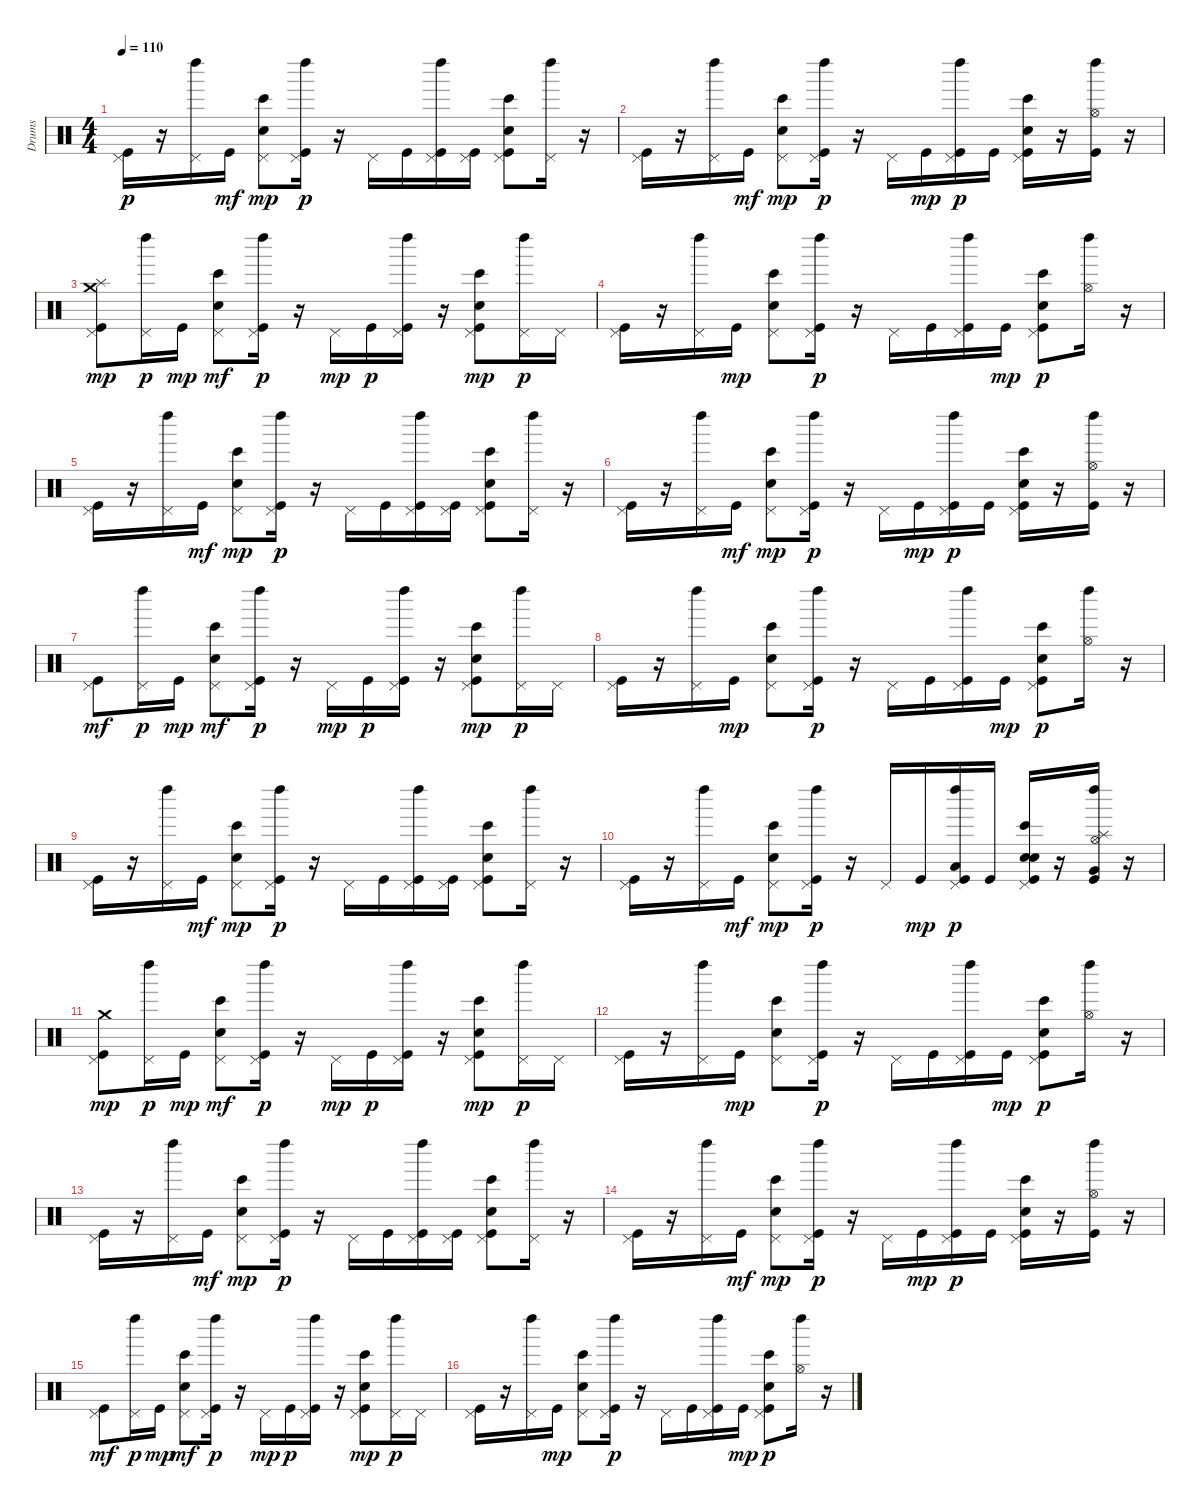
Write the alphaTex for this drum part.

\track ("Drums" "Drums") {instrument percussion}
\staff {score}
\articulation defaults
\ts (4 4)
\tempo 110
\clef neutral
\ks c
("Kick (hit)" "Pedal Hi-Hat (hit)").16{dy p} r.16 ("Pedal Hi-Hat (hit)" "Left Maraca (hit)").16 "Kick (hit)".16{dy mf} ("Bongo High (hit)" "Electric Snare (hit)" "Pedal Hi-Hat (hit)").8{dy mp} ("Kick (hit)" "Pedal Hi-Hat (hit)" "Left Maraca (hit)").16{dy p} r.16 "Pedal Hi-Hat (hit)".16 "Kick (hit)".16 ("Kick (hit)" "Pedal Hi-Hat (hit)" "Left Maraca (hit)").16 ("Kick (hit)" "Pedal Hi-Hat (hit)").16 ("Bongo High (hit)" "Kick (hit)" "Electric Snare (hit)" "Pedal Hi-Hat (hit)").8 ("Pedal Hi-Hat (hit)" "Left Maraca (hit)").16 r.16 |
("Kick (hit)" "Pedal Hi-Hat (hit)").16 r.16 ("Pedal Hi-Hat (hit)" "Left Maraca (hit)").16 "Kick (hit)".16{dy mf} ("Bongo High (hit)" "Electric Snare (hit)" "Pedal Hi-Hat (hit)").8{dy mp} ("Kick (hit)" "Pedal Hi-Hat (hit)" "Left Maraca (hit)").16{dy p} r.16 "Pedal Hi-Hat (hit)".16 "Kick (hit)".16{dy mp} ("Kick (hit)" "Pedal Hi-Hat (hit)" "Left Maraca (hit)").16{dy p} "Kick (hit)".16 ("Bongo High (hit)" "Kick (hit)" "Electric Snare (hit)" "Pedal Hi-Hat (hit)").16 r.16 ("Kick (hit)" "Hi-Hat (open)" "Left Maraca (hit)").16 r.16 |
("Kick (hit)" "Pedal Hi-Hat (hit)" "Crash medium (hit)" "Splash (hit)").8{dy mp} ("Pedal Hi-Hat (hit)" "Left Maraca (hit)").16{dy p} "Kick (hit)".16{dy mp} ("Bongo High (hit)" "Electric Snare (hit)" "Pedal Hi-Hat (hit)").8{dy mf} ("Kick (hit)" "Pedal Hi-Hat (hit)" "Left Maraca (hit)").16{dy p} r.16 "Pedal Hi-Hat (hit)".16{dy mp} "Kick (hit)".16{dy p} ("Kick (hit)" "Pedal Hi-Hat (hit)" "Left Maraca (hit)").16 r.16 ("Bongo High (hit)" "Kick (hit)" "Electric Snare (hit)" "Pedal Hi-Hat (hit)").8{dy mp} ("Pedal Hi-Hat (hit)" "Left Maraca (hit)").16{dy p} "Pedal Hi-Hat (hit)".16 |
("Kick (hit)" "Pedal Hi-Hat (hit)").16 r.16 ("Pedal Hi-Hat (hit)" "Left Maraca (hit)").16 "Kick (hit)".16{dy mp} ("Bongo High (hit)" "Electric Snare (hit)" "Pedal Hi-Hat (hit)").8 ("Kick (hit)" "Pedal Hi-Hat (hit)" "Left Maraca (hit)").16{dy p} r.16 "Pedal Hi-Hat (hit)".16 "Kick (hit)".16 ("Kick (hit)" "Pedal Hi-Hat (hit)" "Left Maraca (hit)").16 "Kick (hit)".16{dy mp} ("Bongo High (hit)" "Kick (hit)" "Electric Snare (hit)" "Pedal Hi-Hat (hit)").8{dy p} ("Hi-Hat (open)" "Left Maraca (hit)").16 r.16 |
("Kick (hit)" "Pedal Hi-Hat (hit)").16 r.16 ("Pedal Hi-Hat (hit)" "Left Maraca (hit)").16 "Kick (hit)".16{dy mf} ("Bongo High (hit)" "Electric Snare (hit)" "Pedal Hi-Hat (hit)").8{dy mp} ("Kick (hit)" "Pedal Hi-Hat (hit)" "Left Maraca (hit)").16{dy p} r.16 "Pedal Hi-Hat (hit)".16 "Kick (hit)".16 ("Kick (hit)" "Pedal Hi-Hat (hit)" "Left Maraca (hit)").16 ("Kick (hit)" "Pedal Hi-Hat (hit)").16 ("Bongo High (hit)" "Kick (hit)" "Electric Snare (hit)" "Pedal Hi-Hat (hit)").8 ("Pedal Hi-Hat (hit)" "Left Maraca (hit)").16 r.16 |
("Kick (hit)" "Pedal Hi-Hat (hit)").16 r.16 ("Pedal Hi-Hat (hit)" "Left Maraca (hit)").16 "Kick (hit)".16{dy mf} ("Bongo High (hit)" "Electric Snare (hit)" "Pedal Hi-Hat (hit)").8{dy mp} ("Kick (hit)" "Pedal Hi-Hat (hit)" "Left Maraca (hit)").16{dy p} r.16 "Pedal Hi-Hat (hit)".16 "Kick (hit)".16{dy mp} ("Kick (hit)" "Pedal Hi-Hat (hit)" "Left Maraca (hit)").16{dy p} "Kick (hit)".16 ("Bongo High (hit)" "Kick (hit)" "Electric Snare (hit)" "Pedal Hi-Hat (hit)").16 r.16 ("Kick (hit)" "Hi-Hat (open)" "Left Maraca (hit)").16 r.16 |
("Kick (hit)" "Pedal Hi-Hat (hit)").8{dy mf} ("Pedal Hi-Hat (hit)" "Left Maraca (hit)").16{dy p} "Kick (hit)".16{dy mp} ("Bongo High (hit)" "Electric Snare (hit)" "Pedal Hi-Hat (hit)").8{dy mf} ("Kick (hit)" "Pedal Hi-Hat (hit)" "Left Maraca (hit)").16{dy p} r.16 "Pedal Hi-Hat (hit)".16{dy mp} "Kick (hit)".16{dy p} ("Kick (hit)" "Pedal Hi-Hat (hit)" "Left Maraca (hit)").16 r.16 ("Bongo High (hit)" "Kick (hit)" "Electric Snare (hit)" "Pedal Hi-Hat (hit)").8{dy mp} ("Pedal Hi-Hat (hit)" "Left Maraca (hit)").16{dy p} "Pedal Hi-Hat (hit)".16 |
("Kick (hit)" "Pedal Hi-Hat (hit)").16 r.16 ("Pedal Hi-Hat (hit)" "Left Maraca (hit)").16 "Kick (hit)".16{dy mp} ("Bongo High (hit)" "Electric Snare (hit)" "Pedal Hi-Hat (hit)").8 ("Kick (hit)" "Pedal Hi-Hat (hit)" "Left Maraca (hit)").16{dy p} r.16 "Pedal Hi-Hat (hit)".16 "Kick (hit)".16 ("Kick (hit)" "Pedal Hi-Hat (hit)" "Left Maraca (hit)").16 "Kick (hit)".16{dy mp} ("Bongo High (hit)" "Kick (hit)" "Electric Snare (hit)" "Pedal Hi-Hat (hit)").8{dy p} ("Hi-Hat (open)" "Left Maraca (hit)").16 r.16 |
("Kick (hit)" "Pedal Hi-Hat (hit)").16 r.16 ("Pedal Hi-Hat (hit)" "Left Maraca (hit)").16 "Kick (hit)".16{dy mf} ("Bongo High (hit)" "Electric Snare (hit)" "Pedal Hi-Hat (hit)").8{dy mp} ("Kick (hit)" "Pedal Hi-Hat (hit)" "Left Maraca (hit)").16{dy p} r.16 "Pedal Hi-Hat (hit)".16 "Kick (hit)".16 ("Kick (hit)" "Pedal Hi-Hat (hit)" "Left Maraca (hit)").16 ("Kick (hit)" "Pedal Hi-Hat (hit)").16 ("Bongo High (hit)" "Kick (hit)" "Electric Snare (hit)" "Pedal Hi-Hat (hit)").8 ("Pedal Hi-Hat (hit)" "Left Maraca (hit)").16 r.16 |
("Kick (hit)" "Pedal Hi-Hat (hit)").16 r.16 ("Pedal Hi-Hat (hit)" "Left Maraca (hit)").16 "Kick (hit)".16{dy mf} ("Bongo High (hit)" "Electric Snare (hit)" "Pedal Hi-Hat (hit)").8{dy mp} ("Kick (hit)" "Pedal Hi-Hat (hit)" "Left Maraca (hit)").16{dy p} r.16 "Pedal Hi-Hat (hit)".16 "Kick (hit)".16{dy mp} ("Kick (hit)" "Pedal Hi-Hat (hit)" "Low Tom (hit)" "Left Maraca (hit)").16{dy p} "Kick (hit)".16 ("Bongo High (hit)" "Kick (hit)" "Snare (hit) 2" "Electric Snare (hit)" "Pedal Hi-Hat (hit)").16 r.16 ("Kick (hit)" "Very Low Tom (hit)" "Hi-Hat (open)" "Splash (hit)" "Left Maraca (hit)").16 r.16 |
("Kick (hit)" "Pedal Hi-Hat (hit)" "Crash medium (hit)").8{dy mp} ("Pedal Hi-Hat (hit)" "Left Maraca (hit)").16{dy p} "Kick (hit)".16{dy mp} ("Bongo High (hit)" "Electric Snare (hit)" "Pedal Hi-Hat (hit)").8{dy mf} ("Kick (hit)" "Pedal Hi-Hat (hit)" "Left Maraca (hit)").16{dy p} r.16 "Pedal Hi-Hat (hit)".16{dy mp} "Kick (hit)".16{dy p} ("Kick (hit)" "Pedal Hi-Hat (hit)" "Left Maraca (hit)").16 r.16 ("Bongo High (hit)" "Kick (hit)" "Electric Snare (hit)" "Pedal Hi-Hat (hit)").8{dy mp} ("Pedal Hi-Hat (hit)" "Left Maraca (hit)").16{dy p} "Pedal Hi-Hat (hit)".16 |
("Kick (hit)" "Pedal Hi-Hat (hit)").16 r.16 ("Pedal Hi-Hat (hit)" "Left Maraca (hit)").16 "Kick (hit)".16{dy mp} ("Bongo High (hit)" "Electric Snare (hit)" "Pedal Hi-Hat (hit)").8 ("Kick (hit)" "Pedal Hi-Hat (hit)" "Left Maraca (hit)").16{dy p} r.16 "Pedal Hi-Hat (hit)".16 "Kick (hit)".16 ("Kick (hit)" "Pedal Hi-Hat (hit)" "Left Maraca (hit)").16 "Kick (hit)".16{dy mp} ("Bongo High (hit)" "Kick (hit)" "Electric Snare (hit)" "Pedal Hi-Hat (hit)").8{dy p} ("Hi-Hat (open)" "Left Maraca (hit)").16 r.16 |
("Kick (hit)" "Pedal Hi-Hat (hit)").16 r.16 ("Pedal Hi-Hat (hit)" "Left Maraca (hit)").16 "Kick (hit)".16{dy mf} ("Bongo High (hit)" "Electric Snare (hit)" "Pedal Hi-Hat (hit)").8{dy mp} ("Kick (hit)" "Pedal Hi-Hat (hit)" "Left Maraca (hit)").16{dy p} r.16 "Pedal Hi-Hat (hit)".16 "Kick (hit)".16 ("Kick (hit)" "Pedal Hi-Hat (hit)" "Left Maraca (hit)").16 ("Kick (hit)" "Pedal Hi-Hat (hit)").16 ("Bongo High (hit)" "Kick (hit)" "Electric Snare (hit)" "Pedal Hi-Hat (hit)").8 ("Pedal Hi-Hat (hit)" "Left Maraca (hit)").16 r.16 |
("Kick (hit)" "Pedal Hi-Hat (hit)").16 r.16 ("Pedal Hi-Hat (hit)" "Left Maraca (hit)").16 "Kick (hit)".16{dy mf} ("Bongo High (hit)" "Electric Snare (hit)" "Pedal Hi-Hat (hit)").8{dy mp} ("Kick (hit)" "Pedal Hi-Hat (hit)" "Left Maraca (hit)").16{dy p} r.16 "Pedal Hi-Hat (hit)".16 "Kick (hit)".16{dy mp} ("Kick (hit)" "Pedal Hi-Hat (hit)" "Left Maraca (hit)").16{dy p} "Kick (hit)".16 ("Bongo High (hit)" "Kick (hit)" "Electric Snare (hit)" "Pedal Hi-Hat (hit)").16 r.16 ("Kick (hit)" "Hi-Hat (open)" "Left Maraca (hit)").16 r.16 |
("Kick (hit)" "Pedal Hi-Hat (hit)").8{dy mf} ("Pedal Hi-Hat (hit)" "Left Maraca (hit)").16{dy p} "Kick (hit)".16{dy mp} ("Bongo High (hit)" "Electric Snare (hit)" "Pedal Hi-Hat (hit)").8{dy mf} ("Kick (hit)" "Pedal Hi-Hat (hit)" "Left Maraca (hit)").16{dy p} r.16 "Pedal Hi-Hat (hit)".16{dy mp} "Kick (hit)".16{dy p} ("Kick (hit)" "Pedal Hi-Hat (hit)" "Left Maraca (hit)").16 r.16 ("Bongo High (hit)" "Kick (hit)" "Electric Snare (hit)" "Pedal Hi-Hat (hit)").8{dy mp} ("Pedal Hi-Hat (hit)" "Left Maraca (hit)").16{dy p} "Pedal Hi-Hat (hit)".16 |
("Kick (hit)" "Pedal Hi-Hat (hit)").16 r.16 ("Pedal Hi-Hat (hit)" "Left Maraca (hit)").16 "Kick (hit)".16{dy mp} ("Bongo High (hit)" "Electric Snare (hit)" "Pedal Hi-Hat (hit)").8 ("Kick (hit)" "Pedal Hi-Hat (hit)" "Left Maraca (hit)").16{dy p} r.16 "Pedal Hi-Hat (hit)".16 "Kick (hit)".16 ("Kick (hit)" "Pedal Hi-Hat (hit)" "Left Maraca (hit)").16 "Kick (hit)".16{dy mp} ("Bongo High (hit)" "Kick (hit)" "Electric Snare (hit)" "Pedal Hi-Hat (hit)").8{dy p} ("Hi-Hat (open)" "Left Maraca (hit)").16 r.16
